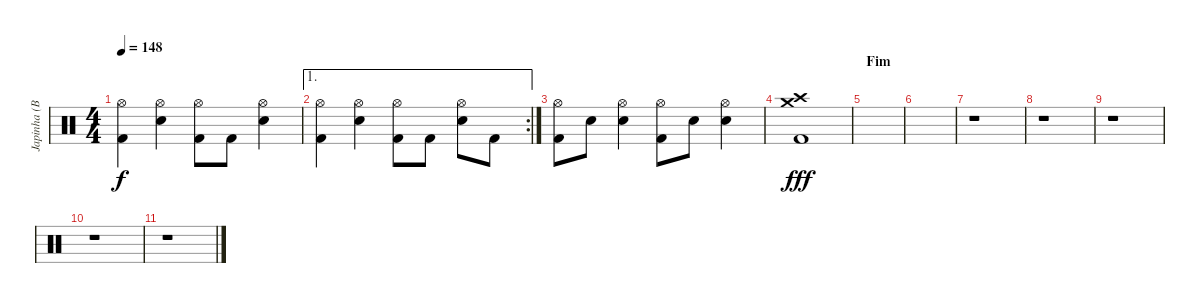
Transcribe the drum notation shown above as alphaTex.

\track ("Japinha (Bateria)" "Japinha (B") {instrument percussion}
\staff {score}
\articulation defaults
\ts (4 4)
\tempo 148
\clef neutral
\ks c
("Hi-Hat (open)" "Kick (hit) 2").4{dy f} ("Hi-Hat (open)" "Snare (hit) 2").4 ("Hi-Hat (open)" "Kick (hit) 2").8 "Kick (hit) 2".8 ("Hi-Hat (open)" "Snare (hit) 2").4 |
\ae 1
\rc 2
("Hi-Hat (open)" "Kick (hit) 2").4 ("Hi-Hat (open)" "Snare (hit) 2").4 ("Hi-Hat (open)" "Kick (hit) 2").8 "Kick (hit) 2".8 ("Hi-Hat (open)" "Snare (hit) 2").8 "Kick (hit) 2".8 |
("Hi-Hat (open)" "Kick (hit) 2").8 "Snare (hit) 2".8 ("Hi-Hat (open)" "Snare (hit) 2").4 ("Hi-Hat (open)" "Kick (hit) 2").8 "Snare (hit) 2".8 ("Hi-Hat (open)" "Snare (hit) 2").4 |
("Crash medium (hit)" "Crash high (hit)" "Kick (hit) 2").1{dy fff} |
\section ("" "Fim")
|
|
r.1 |
r.1 |
r.1 |
r.1 |
r.1
